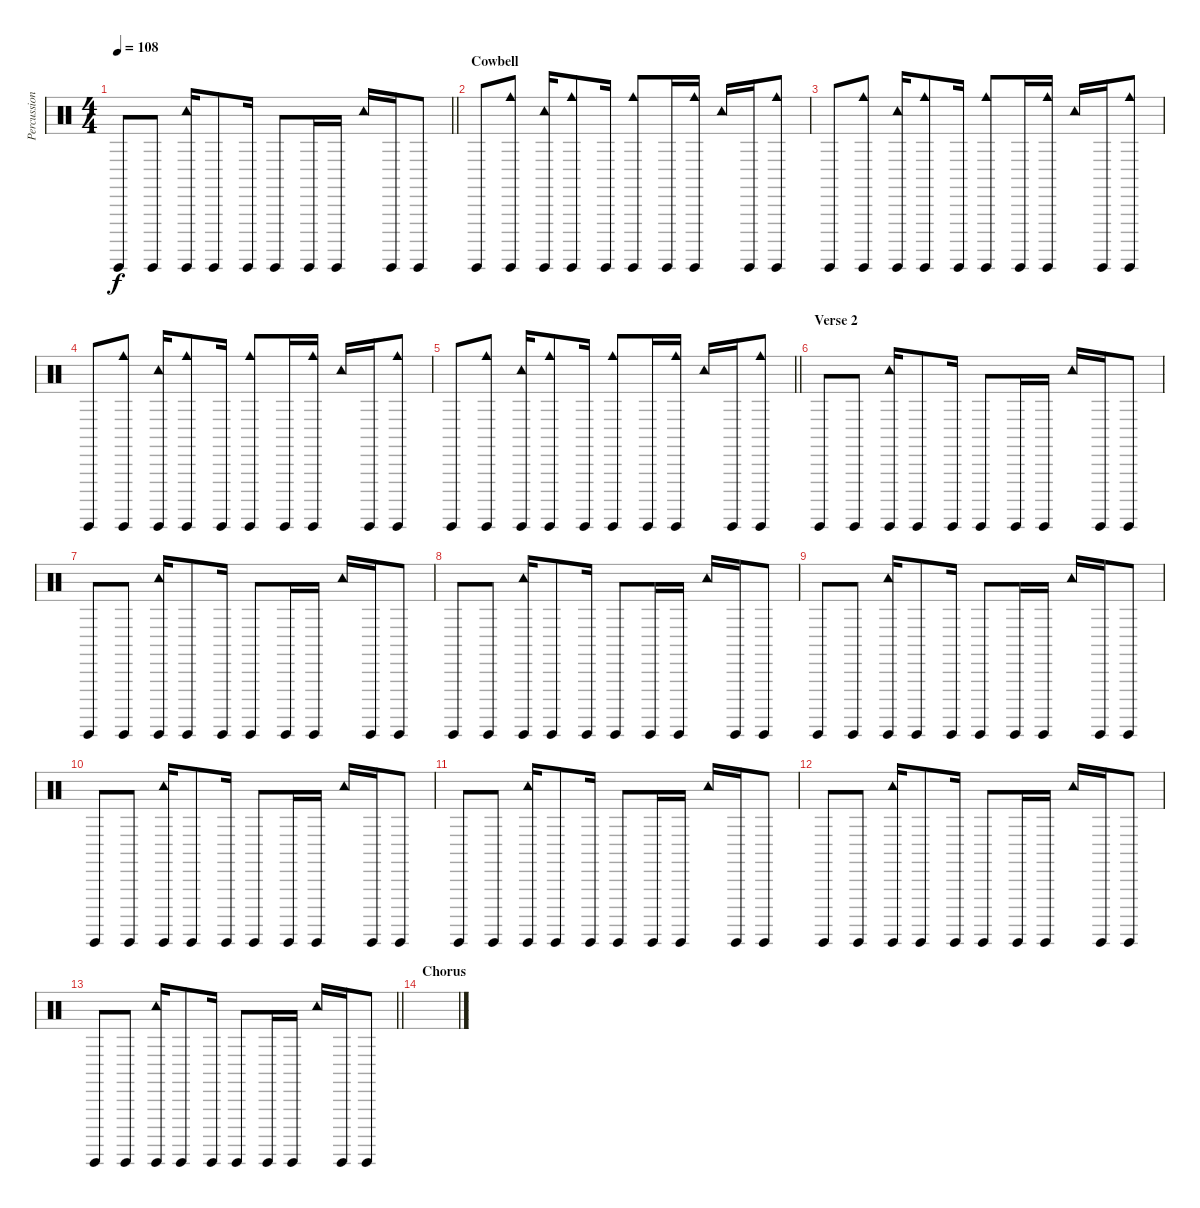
\track ("Percussion (Chad Smith)" "Percussion") {instrument percussion}
\staff {score}
\articulation defaults
\ts (4 4)
\tempo 108
\clef neutral
\barLineRight lightlight
\ks c "Guiro (hit)".8{dy f} "Guiro (hit)".8
("Guiro (hit)" "Tambourine (hit)").16 "Guiro (hit)".8 "Guiro (hit)".16 "Guiro (hit)".8 "Guiro (hit)".16 "Guiro (hit)".16 "Tambourine (hit)".16 "Guiro (hit)".16 "Guiro (hit)".8 |
\section ("" "Cowbell")
"Guiro (hit)".8 ("Guiro (hit)" "Cowbell medium (hit)").8 ("Guiro (hit)" "Tambourine (hit)").16 ("Guiro (hit)" "Cowbell medium (hit)").8 "Guiro (hit)".16 ("Guiro (hit)" "Cowbell medium (hit)").8 "Guiro (hit)".16 ("Guiro (hit)" "Cowbell medium (hit)").16 "Tambourine (hit)".16 "Guiro (hit)".16 ("Guiro (hit)" "Cowbell medium (hit)").8 |
"Guiro (hit)".8 ("Guiro (hit)" "Cowbell medium (hit)").8 ("Guiro (hit)" "Tambourine (hit)").16 ("Guiro (hit)" "Cowbell medium (hit)").8 "Guiro (hit)".16 ("Guiro (hit)" "Cowbell medium (hit)").8 "Guiro (hit)".16 ("Guiro (hit)" "Cowbell medium (hit)").16 "Tambourine (hit)".16 "Guiro (hit)".16 ("Guiro (hit)" "Cowbell medium (hit)").8 |
"Guiro (hit)".8 ("Guiro (hit)" "Cowbell medium (hit)").8 ("Guiro (hit)" "Tambourine (hit)").16 ("Guiro (hit)" "Cowbell medium (hit)").8 "Guiro (hit)".16 ("Guiro (hit)" "Cowbell medium (hit)").8 "Guiro (hit)".16 ("Guiro (hit)" "Cowbell medium (hit)").16 "Tambourine (hit)".16 "Guiro (hit)".16 ("Guiro (hit)" "Cowbell medium (hit)").8 |
\barLineRight lightlight "Guiro (hit)".8
("Guiro (hit)" "Cowbell medium (hit)").8 ("Guiro (hit)" "Tambourine (hit)").16 ("Guiro (hit)" "Cowbell medium (hit)").8 "Guiro (hit)".16 ("Guiro (hit)" "Cowbell medium (hit)").8 "Guiro (hit)".16 ("Guiro (hit)" "Cowbell medium (hit)").16 "Tambourine (hit)".16 "Guiro (hit)".16 ("Guiro (hit)" "Cowbell medium (hit)").8 |
\section ("" "Verse 2")
"Guiro (hit)".8 "Guiro (hit)".8 ("Guiro (hit)" "Tambourine (hit)").16 "Guiro (hit)".8 "Guiro (hit)".16 "Guiro (hit)".8 "Guiro (hit)".16 "Guiro (hit)".16 "Tambourine (hit)".16 "Guiro (hit)".16 "Guiro (hit)".8 |
"Guiro (hit)".8 "Guiro (hit)".8 ("Guiro (hit)" "Tambourine (hit)").16 "Guiro (hit)".8 "Guiro (hit)".16 "Guiro (hit)".8 "Guiro (hit)".16 "Guiro (hit)".16 "Tambourine (hit)".16 "Guiro (hit)".16 "Guiro (hit)".8 |
"Guiro (hit)".8 "Guiro (hit)".8 ("Guiro (hit)" "Tambourine (hit)").16 "Guiro (hit)".8 "Guiro (hit)".16 "Guiro (hit)".8 "Guiro (hit)".16 "Guiro (hit)".16 "Tambourine (hit)".16 "Guiro (hit)".16 "Guiro (hit)".8 |
"Guiro (hit)".8 "Guiro (hit)".8 ("Guiro (hit)" "Tambourine (hit)").16 "Guiro (hit)".8 "Guiro (hit)".16 "Guiro (hit)".8 "Guiro (hit)".16 "Guiro (hit)".16 "Tambourine (hit)".16 "Guiro (hit)".16 "Guiro (hit)".8 |
"Guiro (hit)".8 "Guiro (hit)".8 ("Guiro (hit)" "Tambourine (hit)").16 "Guiro (hit)".8 "Guiro (hit)".16 "Guiro (hit)".8 "Guiro (hit)".16 "Guiro (hit)".16 "Tambourine (hit)".16 "Guiro (hit)".16 "Guiro (hit)".8 |
"Guiro (hit)".8 "Guiro (hit)".8 ("Guiro (hit)" "Tambourine (hit)").16 "Guiro (hit)".8 "Guiro (hit)".16 "Guiro (hit)".8 "Guiro (hit)".16 "Guiro (hit)".16 "Tambourine (hit)".16 "Guiro (hit)".16 "Guiro (hit)".8 |
"Guiro (hit)".8 "Guiro (hit)".8 ("Guiro (hit)" "Tambourine (hit)").16 "Guiro (hit)".8 "Guiro (hit)".16 "Guiro (hit)".8 "Guiro (hit)".16 "Guiro (hit)".16 "Tambourine (hit)".16 "Guiro (hit)".16 "Guiro (hit)".8 |
\barLineRight lightlight "Guiro (hit)".8 "Guiro (hit)".8
("Guiro (hit)" "Tambourine (hit)").16 "Guiro (hit)".8 "Guiro (hit)".16 "Guiro (hit)".8 "Guiro (hit)".16 "Guiro (hit)".16 "Tambourine (hit)".16 "Guiro (hit)".16 "Guiro (hit)".8 |
\section ("" "Chorus")
